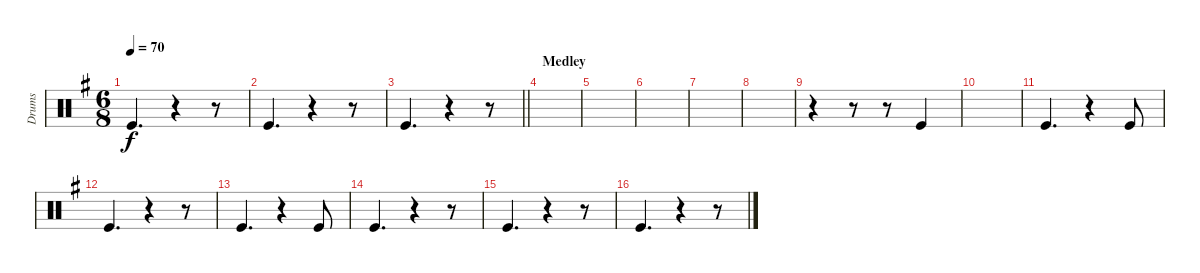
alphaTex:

\track ("Drums" "Drums") {instrument percussion}
\staff {score}
\articulation defaults
\ts (6 8)
\tempo 70
\clef neutral
\ks g "Kick (hit)".4{d dy f}
r.4 r.8 |
"Kick (hit)".4{d} r.4 r.8 |
\barLineRight lightlight "Kick (hit)".4{d}
r.4 r.8 |
\section ("" "Medley")
|
|
|
|
|
r.4 r.8 r.8 "Kick (hit)".4 |
|
"Kick (hit)".4{d} r.4 "Kick (hit)".8 |
"Kick (hit)".4{d} r.4 r.8 |
"Kick (hit)".4{d} r.4 "Kick (hit)".8 |
"Kick (hit)".4{d} r.4 r.8 |
"Kick (hit)".4{d} r.4 r.8 |
"Kick (hit)".4{d} r.4 r.8
